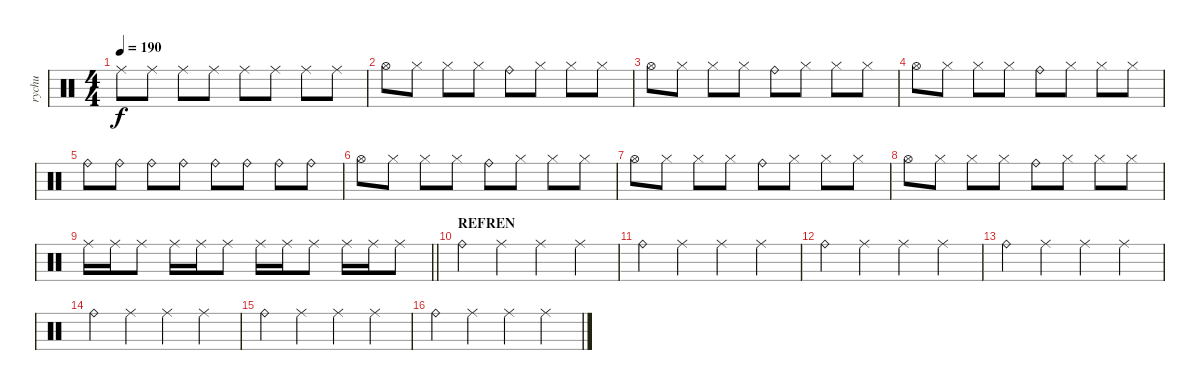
\track ("rychu" "rychu") {instrument percussion}
\staff {score}
\articulation defaults
\ts (4 4)
\tempo 190
\clef neutral
\ks c "Ride (middle)".8{dy f} "Ride (middle)".8 "Ride (middle)".8 "Ride (middle)".8 "Ride (middle)".8 "Ride (middle)".8 "Ride (middle)".8 "Ride (middle)".8
|
"Hi-Hat (open)".8 "Hi-Hat (closed)".8 "Hi-Hat (closed)".8 "Hi-Hat (closed)".8 "Ride (bell)".8 "Hi-Hat (closed)".8 "Hi-Hat (closed)".8 "Hi-Hat (closed)".8 |
"Hi-Hat (open)".8 "Hi-Hat (closed)".8 "Hi-Hat (closed)".8 "Hi-Hat (closed)".8 "Ride (bell)".8 "Hi-Hat (closed)".8 "Hi-Hat (closed)".8 "Hi-Hat (closed)".8 |
"Hi-Hat (open)".8 "Hi-Hat (closed)".8 "Hi-Hat (closed)".8 "Hi-Hat (closed)".8 "Ride (bell)".8 "Hi-Hat (closed)".8 "Hi-Hat (closed)".8 "Hi-Hat (closed)".8 |
"Ride (bell)".8 "Ride (bell)".8 "Ride (bell)".8 "Ride (bell)".8 "Ride (bell)".8 "Ride (bell)".8 "Ride (bell)".8 "Ride (bell)".8 |
"Hi-Hat (open)".8 "Hi-Hat (closed)".8 "Hi-Hat (closed)".8 "Hi-Hat (closed)".8 "Ride (bell)".8 "Hi-Hat (closed)".8 "Hi-Hat (closed)".8 "Hi-Hat (closed)".8 |
"Hi-Hat (open)".8 "Hi-Hat (closed)".8 "Hi-Hat (closed)".8 "Hi-Hat (closed)".8 "Ride (bell)".8 "Hi-Hat (closed)".8 "Hi-Hat (closed)".8 "Hi-Hat (closed)".8 |
"Hi-Hat (open)".8 "Hi-Hat (closed)".8 "Hi-Hat (closed)".8 "Hi-Hat (closed)".8 "Ride (bell)".8 "Hi-Hat (closed)".8 "Hi-Hat (closed)".8 "Hi-Hat (closed)".8 |
\barLineRight lightlight "Ride (middle)".16 "Ride (middle)".16 "Ride (middle)".8 "Ride (middle)".16 "Ride (middle)".16 "Ride (middle)".8 "Ride (middle)".16 "Ride (middle)".16 "Ride (middle)".8 "Ride (middle)".16 "Ride (middle)".16 "Ride (middle)".8
|
\section ("" "REFREN")
"Ride (bell)".4 "Ride (middle)".4 "Ride (middle)".4 "Ride (middle)".4 |
"Ride (bell)".4 "Ride (middle)".4 "Ride (middle)".4 "Ride (middle)".4 |
"Ride (bell)".4 "Ride (middle)".4 "Ride (middle)".4 "Ride (middle)".4 |
"Ride (bell)".4 "Ride (middle)".4 "Ride (middle)".4 "Ride (middle)".4 |
"Ride (bell)".4 "Ride (middle)".4 "Ride (middle)".4 "Ride (middle)".4 |
"Ride (bell)".4 "Ride (middle)".4 "Ride (middle)".4 "Ride (middle)".4 |
"Ride (bell)".4 "Ride (middle)".4 "Ride (middle)".4 "Ride (middle)".4
